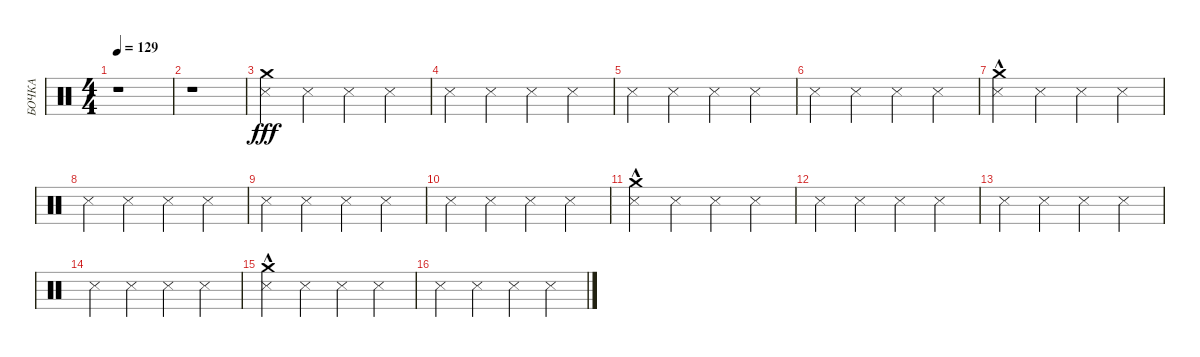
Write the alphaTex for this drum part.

\track ("БОЧКА" "БОЧКА") {instrument percussion}
\staff {score}
\articulation defaults
\ts (4 4)
\tempo 129
\clef neutral
\ks c
r.1{dy fff} |
r.1 |
("Crash medium (hit)" "Metronome (hit)").4 "Metronome (hit)".4 "Metronome (hit)".4 "Metronome (hit)".4 |
"Metronome (hit)".4 "Metronome (hit)".4 "Metronome (hit)".4 "Metronome (hit)".4 |
"Metronome (hit)".4 "Metronome (hit)".4 "Metronome (hit)".4 "Metronome (hit)".4 |
"Metronome (hit)".4 "Metronome (hit)".4 "Metronome (hit)".4 "Metronome (hit)".4 |
("Metronome (hit)" "Crash medium (hit)"{hac}).4 "Metronome (hit)".4 "Metronome (hit)".4 "Metronome (hit)".4 |
"Metronome (hit)".4 "Metronome (hit)".4 "Metronome (hit)".4 "Metronome (hit)".4 |
"Metronome (hit)".4 "Metronome (hit)".4 "Metronome (hit)".4 "Metronome (hit)".4 |
"Metronome (hit)".4 "Metronome (hit)".4 "Metronome (hit)".4 "Metronome (hit)".4 |
("Metronome (hit)" "Crash medium (hit)"{hac}).4 "Metronome (hit)".4 "Metronome (hit)".4 "Metronome (hit)".4 |
"Metronome (hit)".4 "Metronome (hit)".4 "Metronome (hit)".4 "Metronome (hit)".4 |
"Metronome (hit)".4 "Metronome (hit)".4 "Metronome (hit)".4 "Metronome (hit)".4 |
"Metronome (hit)".4 "Metronome (hit)".4 "Metronome (hit)".4 "Metronome (hit)".4 |
("Metronome (hit)" "Crash medium (hit)"{hac}).4 "Metronome (hit)".4 "Metronome (hit)".4 "Metronome (hit)".4 |
"Metronome (hit)".4 "Metronome (hit)".4 "Metronome (hit)".4 "Metronome (hit)".4
